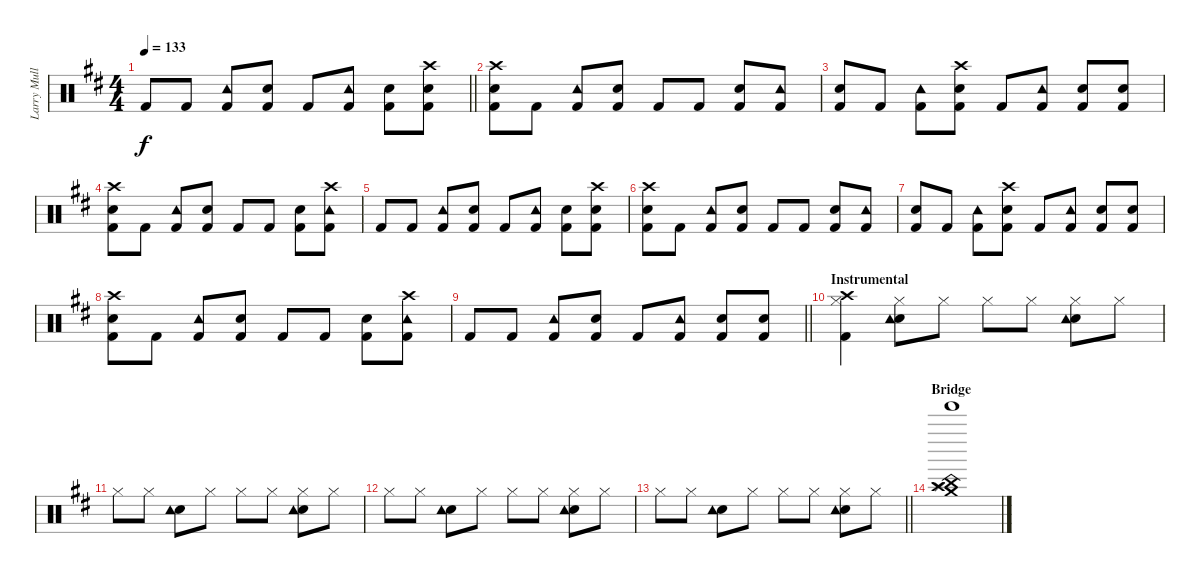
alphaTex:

\track ("Larry Mullen Jr." "Larry Mull") {instrument percussion}
\staff {score}
\articulation defaults
\ts (4 4)
\tempo 133
\clef neutral
\barLineRight lightlight
\ks d "Kick (hit) 2".8{dy f} "Kick (hit) 2".8
("Kick (hit) 2" "Tambourine (hit)").8 ("Kick (hit) 2" "Snare (hit) 2").8 "Kick (hit) 2".8 ("Kick (hit) 2" "Tambourine (hit)").8 ("Kick (hit) 2" "Snare (hit) 2").8 ("Kick (hit) 2" "Snare (hit) 2" "Crash high (hit)").8 |
("Kick (hit) 2" "Crash high (hit)" "Snare (hit) 2").8 "Kick (hit) 2".8 ("Kick (hit) 2" "Tambourine (hit)").8 ("Kick (hit) 2" "Snare (hit) 2").8 "Kick (hit) 2".8 "Kick (hit) 2".8 ("Kick (hit) 2" "Snare (hit) 2").8 ("Kick (hit) 2" "Tambourine (hit)").8 |
("Kick (hit) 2" "Snare (hit) 2").8 "Kick (hit) 2".8 ("Kick (hit) 2" "Tambourine (hit)").8 ("Kick (hit) 2" "Snare (hit) 2" "Crash high (hit)").8 "Kick (hit) 2".8 ("Kick (hit) 2" "Tambourine (hit)").8 ("Kick (hit) 2" "Snare (hit) 2").8 ("Kick (hit) 2" "Snare (hit) 2").8 |
("Kick (hit) 2" "Crash high (hit)" "Snare (hit) 2").8 "Kick (hit) 2".8 ("Kick (hit) 2" "Tambourine (hit)").8 ("Kick (hit) 2" "Snare (hit) 2").8 "Kick (hit) 2".8 "Kick (hit) 2".8 ("Kick (hit) 2" "Snare (hit) 2").8 ("Kick (hit) 2" "Tambourine (hit)" "Crash high (hit)").8 |
"Kick (hit) 2".8 "Kick (hit) 2".8 ("Kick (hit) 2" "Tambourine (hit)").8 ("Kick (hit) 2" "Snare (hit) 2").8 "Kick (hit) 2".8 ("Kick (hit) 2" "Tambourine (hit)").8 ("Kick (hit) 2" "Snare (hit) 2").8 ("Kick (hit) 2" "Snare (hit) 2" "Crash high (hit)").8 |
("Kick (hit) 2" "Crash high (hit)" "Snare (hit) 2").8 "Kick (hit) 2".8 ("Kick (hit) 2" "Tambourine (hit)").8 ("Kick (hit) 2" "Snare (hit) 2").8 "Kick (hit) 2".8 "Kick (hit) 2".8 ("Kick (hit) 2" "Snare (hit) 2").8 ("Kick (hit) 2" "Tambourine (hit)").8 |
("Kick (hit) 2" "Snare (hit) 2").8 "Kick (hit) 2".8 ("Kick (hit) 2" "Tambourine (hit)").8 ("Kick (hit) 2" "Snare (hit) 2" "Crash high (hit)").8 "Kick (hit) 2".8 ("Kick (hit) 2" "Tambourine (hit)").8 ("Kick (hit) 2" "Snare (hit) 2").8 ("Kick (hit) 2" "Snare (hit) 2").8 |
("Kick (hit) 2" "Crash high (hit)" "Snare (hit) 2").8 "Kick (hit) 2".8 ("Kick (hit) 2" "Tambourine (hit)").8 ("Kick (hit) 2" "Snare (hit) 2").8 "Kick (hit) 2".8 "Kick (hit) 2".8 ("Kick (hit) 2" "Snare (hit) 2").8 ("Kick (hit) 2" "Tambourine (hit)" "Crash high (hit)").8 |
\barLineRight lightlight "Kick (hit) 2".8 "Kick (hit) 2".8
("Kick (hit) 2" "Tambourine (hit)").8 ("Kick (hit) 2" "Snare (hit) 2").8 "Kick (hit) 2".8 ("Kick (hit) 2" "Tambourine (hit)").8 ("Kick (hit) 2" "Snare (hit) 2").8 ("Kick (hit) 2" "Snare (hit) 2").8 |
\section ("" "Instrumental")
("Hi-Hat (closed)" "Kick (hit) 2" "Crash high (hit)").4 ("Snare (hit) 2" "Tambourine (hit)" "Hi-Hat (closed)").8 "Hi-Hat (closed)".8 "Hi-Hat (closed)".8 "Hi-Hat (closed)".8 ("Snare (hit) 2" "Tambourine (hit)" "Hi-Hat (closed)").8 "Hi-Hat (closed)".8 |
"Hi-Hat (closed)".8 "Hi-Hat (closed)".8 ("Snare (hit) 2" "Tambourine (hit)").8 "Hi-Hat (closed)".8 "Hi-Hat (closed)".8 "Hi-Hat (closed)".8 ("Snare (hit) 2" "Tambourine (hit)" "Hi-Hat (closed)").8 "Hi-Hat (closed)".8 |
"Hi-Hat (closed)".8 "Hi-Hat (closed)".8 ("Snare (hit) 2" "Tambourine (hit)").8 "Hi-Hat (closed)".8 "Hi-Hat (closed)".8 "Hi-Hat (closed)".8 ("Snare (hit) 2" "Tambourine (hit)" "Hi-Hat (closed)").8 "Hi-Hat (closed)".8 |
\barLineRight lightlight "Hi-Hat (closed)".8 "Hi-Hat (closed)".8
("Snare (hit) 2" "Tambourine (hit)").8 "Hi-Hat (closed)".8 "Hi-Hat (closed)".8 "Hi-Hat (closed)".8 ("Snare (hit) 2" "Tambourine (hit)" "Hi-Hat (closed)").8 "Hi-Hat (closed)".8 |
\section ("" "Bridge")
("Splash (hit)" "Crash high (hit)" "Tinkle Bell (hit)" "Crash medium (hit)" "China (hit)").1
